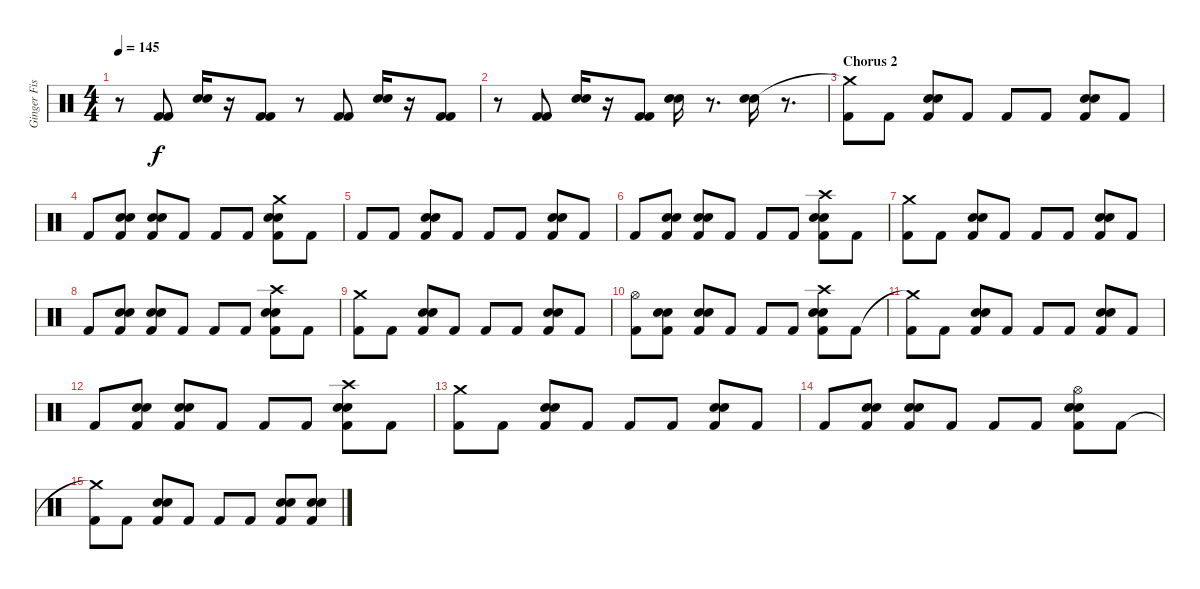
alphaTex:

\track ("Ginger Fish [Drums]" "Ginger Fis") {instrument percussion}
\staff {score}
\articulation defaults
\ts (4 4)
\tempo 145
\clef neutral
\ks c
r.8{dy f} ("Kick (hit) 2" "Kick (hit) 2").8 ("Snare (hit) 2" "Snare (hit) 2").16 r.16 ("Kick (hit) 2" "Kick (hit) 2").8 r.8 ("Kick (hit) 2" "Kick (hit) 2").8 ("Snare (hit) 2" "Snare (hit) 2").16 r.16 ("Kick (hit) 2" "Kick (hit) 2").8 |
r.8 ("Kick (hit) 2" "Kick (hit) 2").8 ("Snare (hit) 2" "Snare (hit) 2").16 r.16 ("Kick (hit) 2" "Kick (hit) 2").8 ("Snare (hit) 2" "Snare (hit) 2").16 r.8{d} ("Snare (hit) 2" "Snare (hit) 2").16 r.8{d} |
\section ("" "Chorus 2")
("Crash medium (hit)"{t} "Kick (hit) 2").8 "Kick (hit) 2".8 ("Snare (hit) 2" "Snare (hit) 2" "Kick (hit) 2").8 "Kick (hit) 2".8 "Kick (hit) 2".8 "Kick (hit) 2".8 ("Snare (hit) 2" "Snare (hit) 2" "Kick (hit) 2").8 "Kick (hit) 2".8 |
"Kick (hit) 2".8 ("Snare (hit) 2" "Snare (hit) 2" "Kick (hit) 2").8 ("Snare (hit) 2" "Snare (hit) 2" "Kick (hit) 2").8 "Kick (hit) 2".8 "Kick (hit) 2".8 "Kick (hit) 2".8 ("Crash medium (hit)" "Snare (hit) 2" "Snare (hit) 2" "Kick (hit) 2").8 "Kick (hit) 2".8 |
"Kick (hit) 2".8 "Kick (hit) 2".8 ("Snare (hit) 2" "Snare (hit) 2" "Kick (hit) 2").8 "Kick (hit) 2".8 "Kick (hit) 2".8 "Kick (hit) 2".8 ("Snare (hit) 2" "Snare (hit) 2" "Kick (hit) 2").8 "Kick (hit) 2".8 |
"Kick (hit) 2".8 ("Snare (hit) 2" "Snare (hit) 2" "Kick (hit) 2").8 ("Snare (hit) 2" "Snare (hit) 2" "Kick (hit) 2").8 "Kick (hit) 2".8 "Kick (hit) 2".8 "Kick (hit) 2".8 ("Crash high (hit)" "Snare (hit) 2" "Snare (hit) 2" "Kick (hit) 2").8 "Kick (hit) 2".8 |
("Crash medium (hit)" "Kick (hit) 2").8 "Kick (hit) 2".8 ("Snare (hit) 2" "Snare (hit) 2" "Kick (hit) 2").8 "Kick (hit) 2".8 "Kick (hit) 2".8 "Kick (hit) 2".8 ("Snare (hit) 2" "Snare (hit) 2" "Kick (hit) 2").8 "Kick (hit) 2".8 |
"Kick (hit) 2".8 ("Snare (hit) 2" "Snare (hit) 2" "Kick (hit) 2").8 ("Snare (hit) 2" "Snare (hit) 2" "Kick (hit) 2").8 "Kick (hit) 2".8 "Kick (hit) 2".8 "Kick (hit) 2".8 ("Crash high (hit)" "Snare (hit) 2" "Snare (hit) 2" "Kick (hit) 2").8 "Kick (hit) 2".8 |
("Crash medium (hit)" "Kick (hit) 2").8 "Kick (hit) 2".8 ("Snare (hit) 2" "Snare (hit) 2" "Kick (hit) 2").8 "Kick (hit) 2".8 "Kick (hit) 2".8 "Kick (hit) 2".8 ("Snare (hit) 2" "Snare (hit) 2" "Kick (hit) 2").8 "Kick (hit) 2".8 |
("Hi-Hat (open)" "Kick (hit) 2").8 ("Snare (hit) 2" "Snare (hit) 2" "Kick (hit) 2").8 ("Snare (hit) 2" "Snare (hit) 2" "Kick (hit) 2").8 "Kick (hit) 2".8 "Kick (hit) 2".8 "Kick (hit) 2".8 ("Crash high (hit)" "Snare (hit) 2" "Snare (hit) 2" "Kick (hit) 2").8 "Kick (hit) 2".8 |
("Crash medium (hit)"{t} "Kick (hit) 2").8 "Kick (hit) 2".8 ("Snare (hit) 2" "Snare (hit) 2" "Kick (hit) 2").8 "Kick (hit) 2".8 "Kick (hit) 2".8 "Kick (hit) 2".8 ("Snare (hit) 2" "Snare (hit) 2" "Kick (hit) 2").8 "Kick (hit) 2".8 |
"Kick (hit) 2".8 ("Snare (hit) 2" "Snare (hit) 2" "Kick (hit) 2").8 ("Snare (hit) 2" "Snare (hit) 2" "Kick (hit) 2").8 "Kick (hit) 2".8 "Kick (hit) 2".8 "Kick (hit) 2".8 ("Crash high (hit)" "Snare (hit) 2" "Snare (hit) 2" "Kick (hit) 2").8 "Kick (hit) 2".8 |
("Crash medium (hit)" "Kick (hit) 2").8 "Kick (hit) 2".8 ("Snare (hit) 2" "Snare (hit) 2" "Kick (hit) 2").8 "Kick (hit) 2".8 "Kick (hit) 2".8 "Kick (hit) 2".8 ("Snare (hit) 2" "Snare (hit) 2" "Kick (hit) 2").8 "Kick (hit) 2".8 |
"Kick (hit) 2".8 ("Snare (hit) 2" "Snare (hit) 2" "Kick (hit) 2").8 ("Snare (hit) 2" "Snare (hit) 2" "Kick (hit) 2").8 "Kick (hit) 2".8 "Kick (hit) 2".8 "Kick (hit) 2".8 ("Hi-Hat (open)" "Snare (hit) 2" "Snare (hit) 2" "Kick (hit) 2").8 "Kick (hit) 2".8 |
("Crash medium (hit)"{t} "Kick (hit) 2").8 "Kick (hit) 2".8 ("Snare (hit) 2" "Snare (hit) 2" "Kick (hit) 2").8 "Kick (hit) 2".8 "Kick (hit) 2".8 "Kick (hit) 2".8 ("Snare (hit) 2" "Snare (hit) 2" "Kick (hit) 2").8 ("Snare (hit) 2" "Snare (hit) 2" "Kick (hit) 2").8
